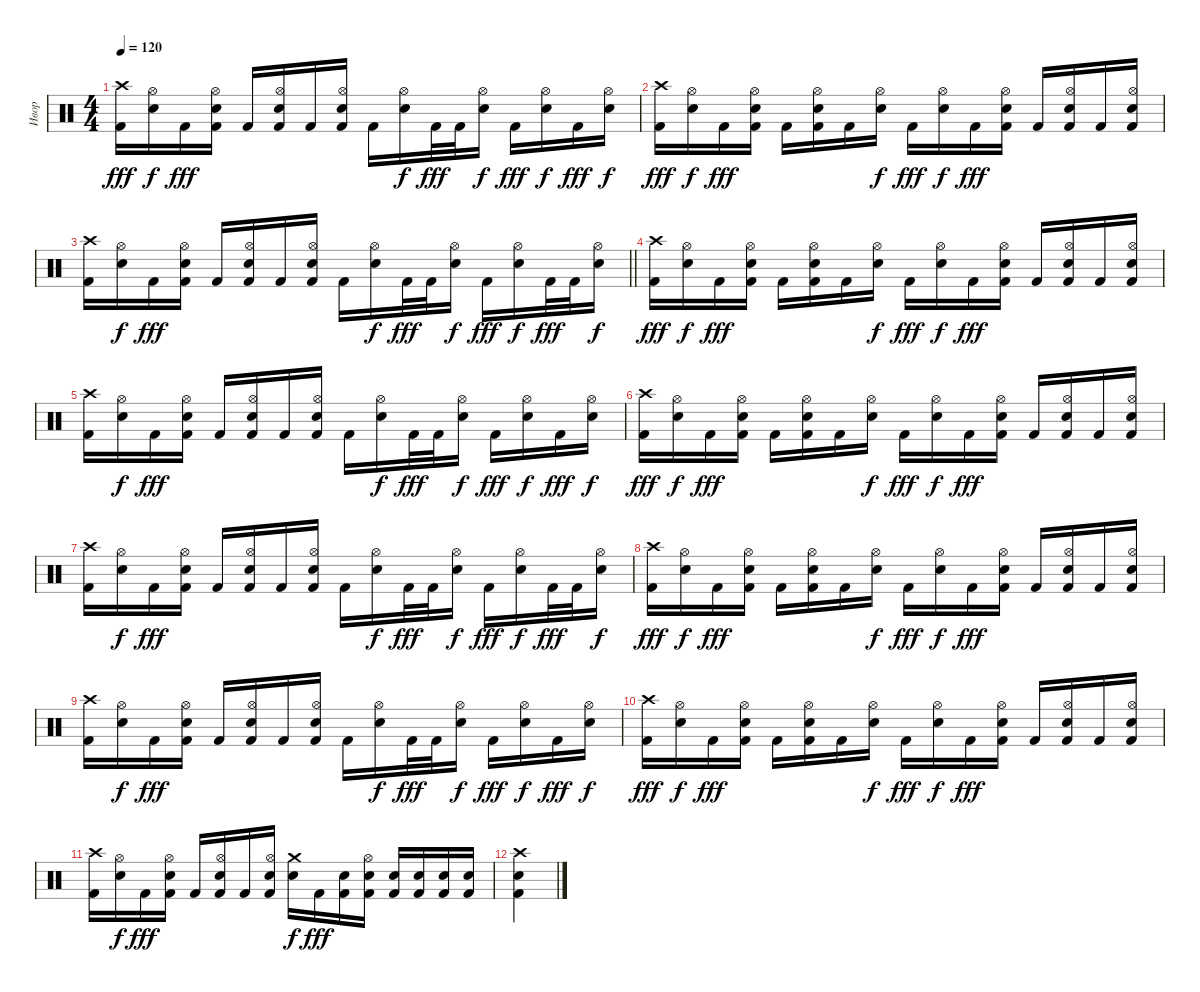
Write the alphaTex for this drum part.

\track ("Ивор" "Ивор") {instrument percussion}
\staff {score}
\articulation defaults
\ts (4 4)
\tempo 120
\clef neutral
\ks c
("Crash high (hit)" "Kick (hit) 2").16{dy fff} ("Hi-Hat (open)" "Electric Snare (hit)").16{dy f} "Kick (hit) 2".16{dy fff} ("Hi-Hat (open)" "Electric Snare (hit)" "Kick (hit) 2").16 "Kick (hit) 2".16 ("Hi-Hat (open)" "Electric Snare (hit)" "Kick (hit) 2").16 "Kick (hit) 2".16 ("Hi-Hat (open)" "Electric Snare (hit)" "Kick (hit) 2").16 "Kick (hit) 2".16 ("Hi-Hat (open)" "Electric Snare (hit)").16{dy f} "Kick (hit) 2".32{dy fff} "Kick (hit) 2".32 ("Hi-Hat (open)" "Electric Snare (hit)").16{dy f} "Kick (hit) 2".16{dy fff} ("Hi-Hat (open)" "Electric Snare (hit)").16{dy f} "Kick (hit) 2".16{dy fff} ("Hi-Hat (open)" "Electric Snare (hit)").16{dy f} |
("Crash high (hit)" "Kick (hit) 2").16{dy fff} ("Hi-Hat (open)" "Electric Snare (hit)").16{dy f} "Kick (hit) 2".16{dy fff} ("Hi-Hat (open)" "Electric Snare (hit)" "Kick (hit) 2").16 "Kick (hit) 2".16 ("Hi-Hat (open)" "Electric Snare (hit)" "Kick (hit) 2").16 "Kick (hit) 2".16 ("Hi-Hat (open)" "Electric Snare (hit)").16{dy f} "Kick (hit) 2".16{dy fff} ("Hi-Hat (open)" "Electric Snare (hit)").16{dy f} "Kick (hit) 2".16{dy fff} ("Hi-Hat (open)" "Electric Snare (hit)" "Kick (hit) 2").16 "Kick (hit) 2".16 ("Hi-Hat (open)" "Electric Snare (hit)" "Kick (hit) 2").16 "Kick (hit) 2".16 ("Hi-Hat (open)" "Electric Snare (hit)" "Kick (hit) 2").16 |
\barLineRight lightlight
("Crash high (hit)" "Kick (hit) 2").16 ("Hi-Hat (open)" "Electric Snare (hit)").16{dy f} "Kick (hit) 2".16{dy fff} ("Hi-Hat (open)" "Electric Snare (hit)" "Kick (hit) 2").16 "Kick (hit) 2".16 ("Hi-Hat (open)" "Electric Snare (hit)" "Kick (hit) 2").16 "Kick (hit) 2".16 ("Hi-Hat (open)" "Electric Snare (hit)" "Kick (hit) 2").16 "Kick (hit) 2".16 ("Hi-Hat (open)" "Electric Snare (hit)").16{dy f} "Kick (hit) 2".32{dy fff} "Kick (hit) 2".32 ("Hi-Hat (open)" "Electric Snare (hit)").16{dy f} "Kick (hit) 2".16{dy fff} ("Hi-Hat (open)" "Electric Snare (hit)").16{dy f} "Kick (hit) 2".32{dy fff} "Kick (hit) 2".32 ("Hi-Hat (open)" "Electric Snare (hit)").16{dy f} |
\section ("" "")
("Crash high (hit)" "Kick (hit) 2").16{dy fff} ("Hi-Hat (open)" "Electric Snare (hit)").16{dy f} "Kick (hit) 2".16{dy fff} ("Hi-Hat (open)" "Electric Snare (hit)" "Kick (hit) 2").16 "Kick (hit) 2".16 ("Hi-Hat (open)" "Electric Snare (hit)" "Kick (hit) 2").16 "Kick (hit) 2".16 ("Hi-Hat (open)" "Electric Snare (hit)").16{dy f} "Kick (hit) 2".16{dy fff} ("Hi-Hat (open)" "Electric Snare (hit)").16{dy f} "Kick (hit) 2".16{dy fff} ("Hi-Hat (open)" "Electric Snare (hit)" "Kick (hit) 2").16 "Kick (hit) 2".16 ("Hi-Hat (open)" "Electric Snare (hit)" "Kick (hit) 2").16 "Kick (hit) 2".16 ("Hi-Hat (open)" "Electric Snare (hit)" "Kick (hit) 2").16 |
("Crash high (hit)" "Kick (hit) 2").16 ("Hi-Hat (open)" "Electric Snare (hit)").16{dy f} "Kick (hit) 2".16{dy fff} ("Hi-Hat (open)" "Electric Snare (hit)" "Kick (hit) 2").16 "Kick (hit) 2".16 ("Hi-Hat (open)" "Electric Snare (hit)" "Kick (hit) 2").16 "Kick (hit) 2".16 ("Hi-Hat (open)" "Electric Snare (hit)" "Kick (hit) 2").16 "Kick (hit) 2".16 ("Hi-Hat (open)" "Electric Snare (hit)").16{dy f} "Kick (hit) 2".32{dy fff} "Kick (hit) 2".32 ("Hi-Hat (open)" "Electric Snare (hit)").16{dy f} "Kick (hit) 2".16{dy fff} ("Hi-Hat (open)" "Electric Snare (hit)").16{dy f} "Kick (hit) 2".16{dy fff} ("Hi-Hat (open)" "Electric Snare (hit)").16{dy f} |
("Crash high (hit)" "Kick (hit) 2").16{dy fff} ("Hi-Hat (open)" "Electric Snare (hit)").16{dy f} "Kick (hit) 2".16{dy fff} ("Hi-Hat (open)" "Electric Snare (hit)" "Kick (hit) 2").16 "Kick (hit) 2".16 ("Hi-Hat (open)" "Electric Snare (hit)" "Kick (hit) 2").16 "Kick (hit) 2".16 ("Hi-Hat (open)" "Electric Snare (hit)").16{dy f} "Kick (hit) 2".16{dy fff} ("Hi-Hat (open)" "Electric Snare (hit)").16{dy f} "Kick (hit) 2".16{dy fff} ("Hi-Hat (open)" "Electric Snare (hit)" "Kick (hit) 2").16 "Kick (hit) 2".16 ("Hi-Hat (open)" "Electric Snare (hit)" "Kick (hit) 2").16 "Kick (hit) 2".16 ("Hi-Hat (open)" "Electric Snare (hit)" "Kick (hit) 2").16 |
("Crash high (hit)" "Kick (hit) 2").16 ("Hi-Hat (open)" "Electric Snare (hit)").16{dy f} "Kick (hit) 2".16{dy fff} ("Hi-Hat (open)" "Electric Snare (hit)" "Kick (hit) 2").16 "Kick (hit) 2".16 ("Hi-Hat (open)" "Electric Snare (hit)" "Kick (hit) 2").16 "Kick (hit) 2".16 ("Hi-Hat (open)" "Electric Snare (hit)" "Kick (hit) 2").16 "Kick (hit) 2".16 ("Hi-Hat (open)" "Electric Snare (hit)").16{dy f} "Kick (hit) 2".32{dy fff} "Kick (hit) 2".32 ("Hi-Hat (open)" "Electric Snare (hit)").16{dy f} "Kick (hit) 2".16{dy fff} ("Hi-Hat (open)" "Electric Snare (hit)").16{dy f} "Kick (hit) 2".32{dy fff} "Kick (hit) 2".32 ("Hi-Hat (open)" "Electric Snare (hit)").16{dy f} |
("Crash high (hit)" "Kick (hit) 2").16{dy fff} ("Hi-Hat (open)" "Electric Snare (hit)").16{dy f} "Kick (hit) 2".16{dy fff} ("Hi-Hat (open)" "Electric Snare (hit)" "Kick (hit) 2").16 "Kick (hit) 2".16 ("Hi-Hat (open)" "Electric Snare (hit)" "Kick (hit) 2").16 "Kick (hit) 2".16 ("Hi-Hat (open)" "Electric Snare (hit)").16{dy f} "Kick (hit) 2".16{dy fff} ("Hi-Hat (open)" "Electric Snare (hit)").16{dy f} "Kick (hit) 2".16{dy fff} ("Hi-Hat (open)" "Electric Snare (hit)" "Kick (hit) 2").16 "Kick (hit) 2".16 ("Hi-Hat (open)" "Electric Snare (hit)" "Kick (hit) 2").16 "Kick (hit) 2".16 ("Hi-Hat (open)" "Electric Snare (hit)" "Kick (hit) 2").16 |
("Crash high (hit)" "Kick (hit) 2").16 ("Hi-Hat (open)" "Electric Snare (hit)").16{dy f} "Kick (hit) 2".16{dy fff} ("Hi-Hat (open)" "Electric Snare (hit)" "Kick (hit) 2").16 "Kick (hit) 2".16 ("Hi-Hat (open)" "Electric Snare (hit)" "Kick (hit) 2").16 "Kick (hit) 2".16 ("Hi-Hat (open)" "Electric Snare (hit)" "Kick (hit) 2").16 "Kick (hit) 2".16 ("Hi-Hat (open)" "Electric Snare (hit)").16{dy f} "Kick (hit) 2".32{dy fff} "Kick (hit) 2".32 ("Hi-Hat (open)" "Electric Snare (hit)").16{dy f} "Kick (hit) 2".16{dy fff} ("Hi-Hat (open)" "Electric Snare (hit)").16{dy f} "Kick (hit) 2".16{dy fff} ("Hi-Hat (open)" "Electric Snare (hit)").16{dy f} |
("Crash high (hit)" "Kick (hit) 2").16{dy fff} ("Hi-Hat (open)" "Electric Snare (hit)").16{dy f} "Kick (hit) 2".16{dy fff} ("Hi-Hat (open)" "Electric Snare (hit)" "Kick (hit) 2").16 "Kick (hit) 2".16 ("Hi-Hat (open)" "Electric Snare (hit)" "Kick (hit) 2").16 "Kick (hit) 2".16 ("Hi-Hat (open)" "Electric Snare (hit)").16{dy f} "Kick (hit) 2".16{dy fff} ("Hi-Hat (open)" "Electric Snare (hit)").16{dy f} "Kick (hit) 2".16{dy fff} ("Hi-Hat (open)" "Electric Snare (hit)" "Kick (hit) 2").16 "Kick (hit) 2".16 ("Hi-Hat (open)" "Electric Snare (hit)" "Kick (hit) 2").16 "Kick (hit) 2".16 ("Hi-Hat (open)" "Electric Snare (hit)" "Kick (hit) 2").16 |
("Crash high (hit)" "Kick (hit) 2").16 ("Hi-Hat (open)" "Electric Snare (hit)").16{dy f} "Kick (hit) 2".16{dy fff} ("Hi-Hat (open)" "Electric Snare (hit)" "Kick (hit) 2").16 "Kick (hit) 2".16 ("Hi-Hat (open)" "Electric Snare (hit)" "Kick (hit) 2").16 "Kick (hit) 2".16 ("Hi-Hat (open)" "Electric Snare (hit)" "Kick (hit) 2").16 ("Crash medium (hit)" "Electric Snare (hit)").16{dy f} "Kick (hit) 2".16{dy fff} ("Electric Snare (hit)" "Kick (hit) 2").16 ("Hi-Hat (open)" "Electric Snare (hit)" "Kick (hit) 2").16 ("Electric Snare (hit)" "Kick (hit) 2").16 ("Electric Snare (hit)" "Kick (hit) 2").16 ("Electric Snare (hit)" "Kick (hit) 2").16 ("Electric Snare (hit)" "Kick (hit) 2").16 |
("Crash high (hit)" "Electric Snare (hit)" "Kick (hit) 2").4
